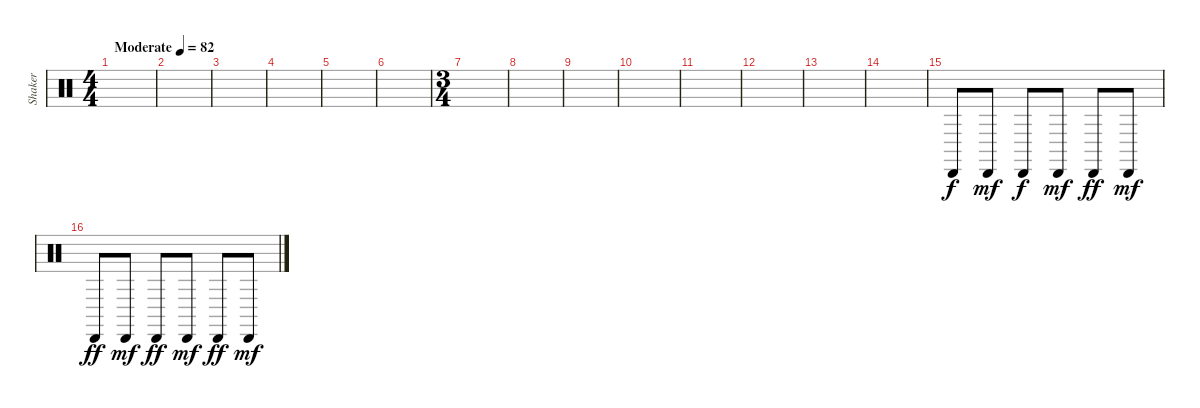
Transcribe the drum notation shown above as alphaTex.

\track ("Shaker" "Shaker") {instrument percussion}
\staff {score}
\articulation defaults
\ts (4 4)
\tempo (82 "Moderate")
\clef neutral
\ks c
|
|
|
|
|
|
\ts (3 4)
|
|
|
|
|
|
|
|
"Cabasa (hit)".8 "Cabasa (hit)".8{dy mf} "Cabasa (hit)".8{dy f} "Cabasa (hit)".8{dy mf} "Cabasa (hit)".8{dy ff} "Cabasa (hit)".8{dy mf} |
"Cabasa (hit)".8{dy ff} "Cabasa (hit)".8{dy mf} "Cabasa (hit)".8{dy ff} "Cabasa (hit)".8{dy mf} "Cabasa (hit)".8{dy ff} "Cabasa (hit)".8{dy mf}
